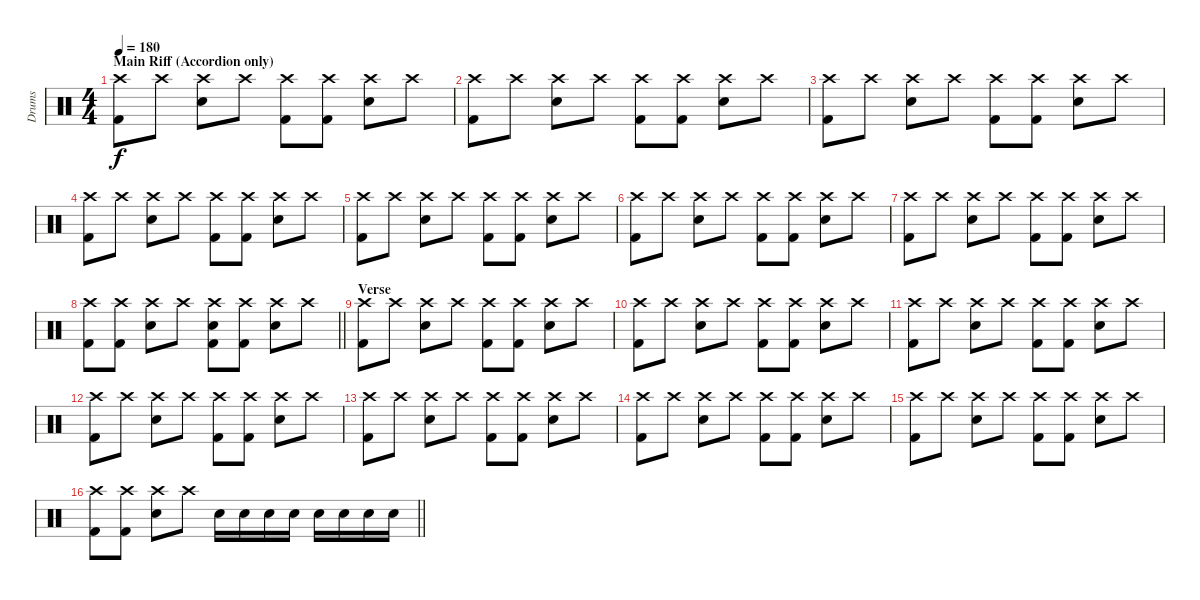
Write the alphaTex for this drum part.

\track ("Drums" "Drums") {instrument percussion}
\staff {score}
\articulation defaults
\ts (4 4)
\section ("" "Main Riff (Accordion only)")
\tempo 180
\clef neutral
\ks c
("Crash high (hit)" "Kick (hit) 2").8{dy f} "Crash high (hit)".8 ("Crash high (hit)" "Snare (hit) 2").8 "Crash high (hit)".8 ("Crash high (hit)" "Kick (hit) 2").8 ("Crash high (hit)" "Kick (hit) 2").8 ("Crash high (hit)" "Snare (hit) 2").8 "Crash high (hit)".8 |
("Crash high (hit)" "Kick (hit) 2").8 "Crash high (hit)".8 ("Crash high (hit)" "Snare (hit) 2").8 "Crash high (hit)".8 ("Crash high (hit)" "Kick (hit) 2").8 ("Crash high (hit)" "Kick (hit) 2").8 ("Crash high (hit)" "Snare (hit) 2").8 "Crash high (hit)".8 |
("Crash high (hit)" "Kick (hit) 2").8 "Crash high (hit)".8 ("Crash high (hit)" "Snare (hit) 2").8 "Crash high (hit)".8 ("Crash high (hit)" "Kick (hit) 2").8 ("Crash high (hit)" "Kick (hit) 2").8 ("Crash high (hit)" "Snare (hit) 2").8 "Crash high (hit)".8 |
("Crash high (hit)" "Kick (hit) 2").8 "Crash high (hit)".8 ("Crash high (hit)" "Snare (hit) 2").8 "Crash high (hit)".8 ("Crash high (hit)" "Kick (hit) 2").8 ("Crash high (hit)" "Kick (hit) 2").8 ("Crash high (hit)" "Snare (hit) 2").8 "Crash high (hit)".8 |
("Crash high (hit)" "Kick (hit) 2").8 "Crash high (hit)".8 ("Crash high (hit)" "Snare (hit) 2").8 "Crash high (hit)".8 ("Crash high (hit)" "Kick (hit) 2").8 ("Crash high (hit)" "Kick (hit) 2").8 ("Crash high (hit)" "Snare (hit) 2").8 "Crash high (hit)".8 |
("Crash high (hit)" "Kick (hit) 2").8 "Crash high (hit)".8 ("Crash high (hit)" "Snare (hit) 2").8 "Crash high (hit)".8 ("Crash high (hit)" "Kick (hit) 2").8 ("Crash high (hit)" "Kick (hit) 2").8 ("Crash high (hit)" "Snare (hit) 2").8 "Crash high (hit)".8 |
("Crash high (hit)" "Kick (hit) 2").8 "Crash high (hit)".8 ("Crash high (hit)" "Snare (hit) 2").8 "Crash high (hit)".8 ("Crash high (hit)" "Kick (hit) 2").8 ("Crash high (hit)" "Kick (hit) 2").8 ("Crash high (hit)" "Snare (hit) 2").8 "Crash high (hit)".8 |
\barLineRight lightlight
("Crash high (hit)" "Kick (hit) 2").8 ("Crash high (hit)" "Kick (hit) 2").8 ("Crash high (hit)" "Snare (hit) 2").8 "Crash high (hit)".8 ("Crash high (hit)" "Snare (hit) 2" "Kick (hit) 2").8 ("Crash high (hit)" "Kick (hit) 2").8 ("Crash high (hit)" "Snare (hit) 2").8 "Crash high (hit)".8 |
\section ("" "Verse")
("Crash high (hit)" "Kick (hit) 2").8 "Crash high (hit)".8 ("Crash high (hit)" "Snare (hit) 2").8 "Crash high (hit)".8 ("Crash high (hit)" "Kick (hit) 2").8 ("Crash high (hit)" "Kick (hit) 2").8 ("Crash high (hit)" "Snare (hit) 2").8 "Crash high (hit)".8 |
("Crash high (hit)" "Kick (hit) 2").8 "Crash high (hit)".8 ("Crash high (hit)" "Snare (hit) 2").8 "Crash high (hit)".8 ("Crash high (hit)" "Kick (hit) 2").8 ("Crash high (hit)" "Kick (hit) 2").8 ("Crash high (hit)" "Snare (hit) 2").8 "Crash high (hit)".8 |
("Crash high (hit)" "Kick (hit) 2").8 "Crash high (hit)".8 ("Crash high (hit)" "Snare (hit) 2").8 "Crash high (hit)".8 ("Crash high (hit)" "Kick (hit) 2").8 ("Crash high (hit)" "Kick (hit) 2").8 ("Crash high (hit)" "Snare (hit) 2").8 "Crash high (hit)".8 |
("Crash high (hit)" "Kick (hit) 2").8 "Crash high (hit)".8 ("Crash high (hit)" "Snare (hit) 2").8 "Crash high (hit)".8 ("Crash high (hit)" "Kick (hit) 2").8 ("Crash high (hit)" "Kick (hit) 2").8 ("Crash high (hit)" "Snare (hit) 2").8 "Crash high (hit)".8 |
("Crash high (hit)" "Kick (hit) 2").8 "Crash high (hit)".8 ("Crash high (hit)" "Snare (hit) 2").8 "Crash high (hit)".8 ("Crash high (hit)" "Kick (hit) 2").8 ("Crash high (hit)" "Kick (hit) 2").8 ("Crash high (hit)" "Snare (hit) 2").8 "Crash high (hit)".8 |
("Crash high (hit)" "Kick (hit) 2").8 "Crash high (hit)".8 ("Crash high (hit)" "Snare (hit) 2").8 "Crash high (hit)".8 ("Crash high (hit)" "Kick (hit) 2").8 ("Crash high (hit)" "Kick (hit) 2").8 ("Crash high (hit)" "Snare (hit) 2").8 "Crash high (hit)".8 |
("Crash high (hit)" "Kick (hit) 2").8 "Crash high (hit)".8 ("Crash high (hit)" "Snare (hit) 2").8 "Crash high (hit)".8 ("Crash high (hit)" "Kick (hit) 2").8 ("Crash high (hit)" "Kick (hit) 2").8 ("Crash high (hit)" "Snare (hit) 2").8 "Crash high (hit)".8 |
\barLineRight lightlight
("Crash high (hit)" "Kick (hit) 2").8 ("Crash high (hit)" "Kick (hit) 2").8 ("Crash high (hit)" "Snare (hit) 2").8 "Crash high (hit)".8 "Snare (hit) 2".16 "Snare (hit) 2".16 "Snare (hit) 2".16 "Snare (hit) 2".16 "Snare (hit) 2".16 "Snare (hit) 2".16 "Snare (hit) 2".16 "Snare (hit) 2".16
